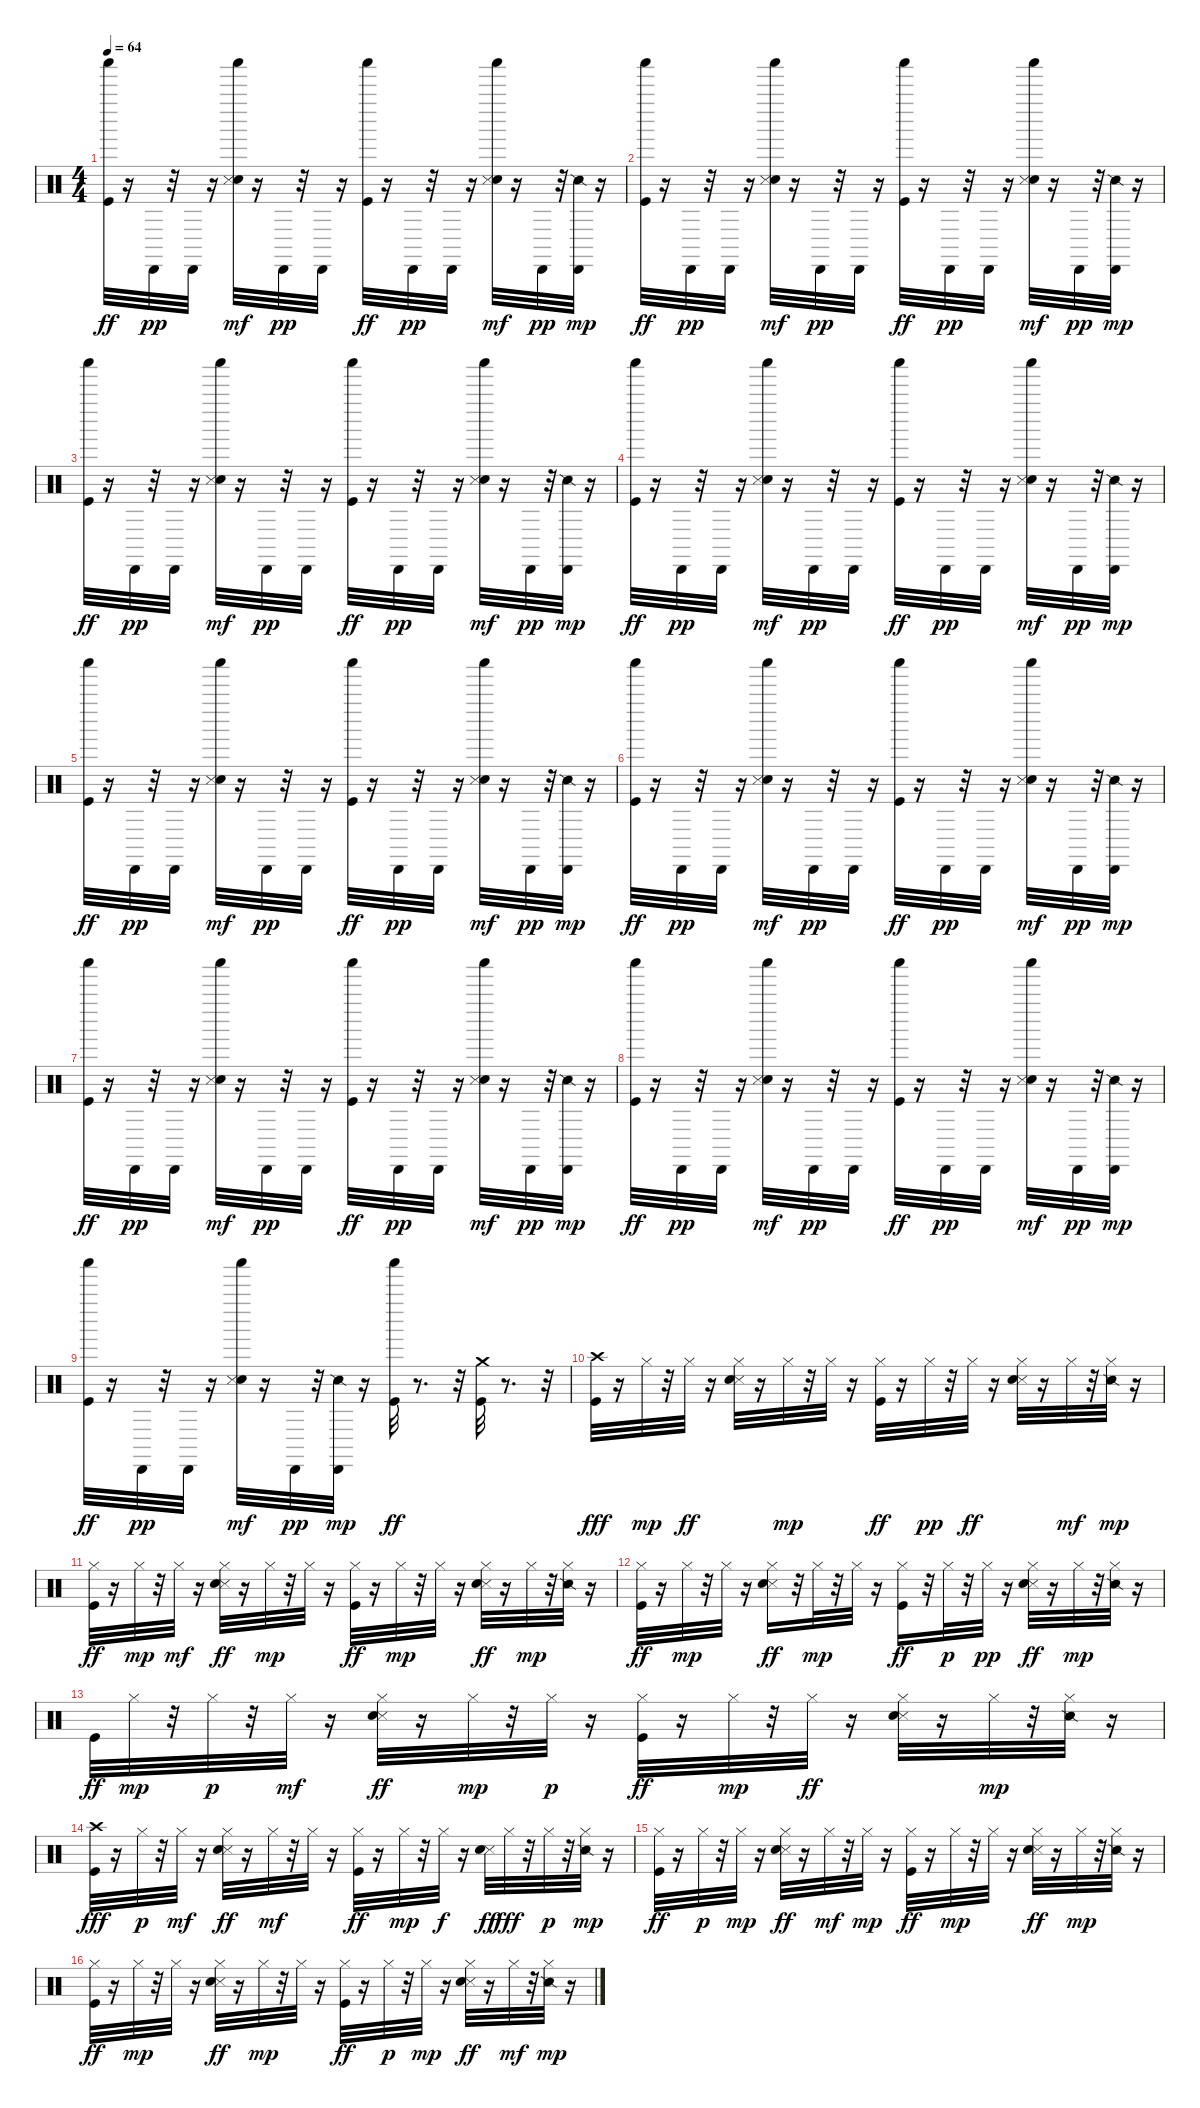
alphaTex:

\track "" {instrument percussion}
\staff {score}
\articulation defaults
\ts (4 4)
\tempo 64
\clef neutral
\ks c
("Shaker (hit)" "Kick (hit)").32{dy ff} r.16 "Cabasa (hit)".32{dy pp} r.32 "Cabasa (hit)".32 r.16 ("Shaker (hit)" "Snare (hit) 2" "Snare (side stick) 3").32{dy mf} r.16 "Cabasa (hit)".32{dy pp} r.32 "Cabasa (hit)".32 r.16 ("Shaker (hit)" "Kick (hit)").32{dy ff} r.16 "Cabasa (hit)".32{dy pp} r.32 "Cabasa (hit)".32 r.16 ("Shaker (hit)" "Snare (hit) 2" "Snare (side stick) 3").32{dy mf} r.16 "Cabasa (hit)".32{dy pp} r.32 ("Cabasa (hit)" "Snare (side stick) 2").32{dy mp} r.16 |
("Shaker (hit)" "Kick (hit)").32{dy ff} r.16 "Cabasa (hit)".32{dy pp} r.32 "Cabasa (hit)".32 r.16 ("Shaker (hit)" "Snare (hit) 2" "Snare (side stick) 3").32{dy mf} r.16 "Cabasa (hit)".32{dy pp} r.32 "Cabasa (hit)".32 r.16 ("Shaker (hit)" "Kick (hit)").32{dy ff} r.16 "Cabasa (hit)".32{dy pp} r.32 "Cabasa (hit)".32 r.16 ("Shaker (hit)" "Snare (hit) 2" "Snare (side stick) 3").32{dy mf} r.16 "Cabasa (hit)".32{dy pp} r.32 ("Cabasa (hit)" "Snare (side stick) 2").32{dy mp} r.16 |
("Shaker (hit)" "Kick (hit)").32{dy ff} r.16 "Cabasa (hit)".32{dy pp} r.32 "Cabasa (hit)".32 r.16 ("Shaker (hit)" "Snare (hit) 2" "Snare (side stick) 3").32{dy mf} r.16 "Cabasa (hit)".32{dy pp} r.32 "Cabasa (hit)".32 r.16 ("Shaker (hit)" "Kick (hit)").32{dy ff} r.16 "Cabasa (hit)".32{dy pp} r.32 "Cabasa (hit)".32 r.16 ("Shaker (hit)" "Snare (hit) 2" "Snare (side stick) 3").32{dy mf} r.16 "Cabasa (hit)".32{dy pp} r.32 ("Cabasa (hit)" "Snare (side stick) 2").32{dy mp} r.16 |
("Shaker (hit)" "Kick (hit)").32{dy ff} r.16 "Cabasa (hit)".32{dy pp} r.32 "Cabasa (hit)".32 r.16 ("Shaker (hit)" "Snare (hit) 2" "Snare (side stick) 3").32{dy mf} r.16 "Cabasa (hit)".32{dy pp} r.32 "Cabasa (hit)".32 r.16 ("Shaker (hit)" "Kick (hit)").32{dy ff} r.16 "Cabasa (hit)".32{dy pp} r.32 "Cabasa (hit)".32 r.16 ("Shaker (hit)" "Snare (hit) 2" "Snare (side stick) 3").32{dy mf} r.16 "Cabasa (hit)".32{dy pp} r.32 ("Cabasa (hit)" "Snare (side stick) 2").32{dy mp} r.16 |
("Shaker (hit)" "Kick (hit)").32{dy ff} r.16 "Cabasa (hit)".32{dy pp} r.32 "Cabasa (hit)".32 r.16 ("Shaker (hit)" "Snare (hit) 2" "Snare (side stick) 3").32{dy mf} r.16 "Cabasa (hit)".32{dy pp} r.32 "Cabasa (hit)".32 r.16 ("Shaker (hit)" "Kick (hit)").32{dy ff} r.16 "Cabasa (hit)".32{dy pp} r.32 "Cabasa (hit)".32 r.16 ("Shaker (hit)" "Snare (hit) 2" "Snare (side stick) 3").32{dy mf} r.16 "Cabasa (hit)".32{dy pp} r.32 ("Cabasa (hit)" "Snare (side stick) 2").32{dy mp} r.16 |
("Shaker (hit)" "Kick (hit)").32{dy ff} r.16 "Cabasa (hit)".32{dy pp} r.32 "Cabasa (hit)".32 r.16 ("Shaker (hit)" "Snare (hit) 2" "Snare (side stick) 3").32{dy mf} r.16 "Cabasa (hit)".32{dy pp} r.32 "Cabasa (hit)".32 r.16 ("Shaker (hit)" "Kick (hit)").32{dy ff} r.16 "Cabasa (hit)".32{dy pp} r.32 "Cabasa (hit)".32 r.16 ("Shaker (hit)" "Snare (hit) 2" "Snare (side stick) 3").32{dy mf} r.16 "Cabasa (hit)".32{dy pp} r.32 ("Cabasa (hit)" "Snare (side stick) 2").32{dy mp} r.16 |
("Shaker (hit)" "Kick (hit)").32{dy ff} r.16 "Cabasa (hit)".32{dy pp} r.32 "Cabasa (hit)".32 r.16 ("Shaker (hit)" "Snare (hit) 2" "Snare (side stick) 3").32{dy mf} r.16 "Cabasa (hit)".32{dy pp} r.32 "Cabasa (hit)".32 r.16 ("Shaker (hit)" "Kick (hit)").32{dy ff} r.16 "Cabasa (hit)".32{dy pp} r.32 "Cabasa (hit)".32 r.16 ("Shaker (hit)" "Snare (hit) 2" "Snare (side stick) 3").32{dy mf} r.16 "Cabasa (hit)".32{dy pp} r.32 ("Cabasa (hit)" "Snare (side stick) 2").32{dy mp} r.16 |
("Shaker (hit)" "Kick (hit)").32{dy ff} r.16 "Cabasa (hit)".32{dy pp} r.32 "Cabasa (hit)".32 r.16 ("Shaker (hit)" "Snare (hit) 2" "Snare (side stick) 3").32{dy mf} r.16 "Cabasa (hit)".32{dy pp} r.32 "Cabasa (hit)".32 r.16 ("Shaker (hit)" "Kick (hit)").32{dy ff} r.16 "Cabasa (hit)".32{dy pp} r.32 "Cabasa (hit)".32 r.16 ("Shaker (hit)" "Snare (hit) 2" "Snare (side stick) 3").32{dy mf} r.16 "Cabasa (hit)".32{dy pp} r.32 ("Cabasa (hit)" "Snare (side stick) 2").32{dy mp} r.16 |
("Shaker (hit)" "Kick (hit)").32{dy ff} r.16 "Cabasa (hit)".32{dy pp} r.32 "Cabasa (hit)".32 r.16 ("Shaker (hit)" "Snare (hit) 2" "Snare (side stick) 3").32{dy mf} r.16 "Cabasa (hit)".32{dy pp} r.32 ("Cabasa (hit)" "Snare (side stick) 2").32{dy mp} r.16 ("Shaker (hit)" "Kick (hit)").32{dy ff} r.8{d} r.32 ("Crash medium (hit)" "Kick (hit)").32 r.8{d} r.32 |
("Kick (hit)" "Crash high (hit)").32{dy fff} r.16 "Hi-Hat (closed)".32{dy mp} r.32 "Hi-Hat (closed)".32{dy ff} r.16 ("Hi-Hat (closed)" "Snare (side stick) 3" "Electric Snare (hit)").32 r.16 "Hi-Hat (closed)".32{dy mp} r.32 "Hi-Hat (closed)".32 r.16 ("Hi-Hat (closed)" "Kick (hit)").32{dy ff} r.16 "Hi-Hat (closed)".32{dy pp} r.32 "Hi-Hat (closed)".32{dy ff} r.16 ("Hi-Hat (closed)" "Snare (side stick) 3" "Electric Snare (hit)").32 r.16 "Hi-Hat (closed)".32{dy mf} r.32 ("Hi-Hat (closed)" "Snare (side stick) 2").32{dy mp} r.16 |
("Hi-Hat (closed)" "Kick (hit)").32{dy ff} r.16 "Hi-Hat (closed)".32{dy mp} r.32 "Hi-Hat (closed)".32{dy mf} r.16 ("Hi-Hat (closed)" "Snare (side stick) 3" "Electric Snare (hit)").32{dy ff} r.16 "Hi-Hat (closed)".32{dy mp} r.32 "Hi-Hat (closed)".32 r.16 ("Hi-Hat (closed)" "Kick (hit)").32{dy ff} r.16 "Hi-Hat (closed)".32{dy mp} r.32 "Hi-Hat (closed)".32 r.16 ("Hi-Hat (closed)" "Snare (side stick) 3" "Electric Snare (hit)").32{dy ff} r.16 "Hi-Hat (closed)".32{dy mp} r.32 ("Hi-Hat (closed)" "Snare (side stick) 2").32 r.16 |
("Hi-Hat (closed)" "Kick (hit)").32{dy ff} r.16 "Hi-Hat (closed)".32{dy mp} r.32 "Hi-Hat (closed)".32 r.16 ("Hi-Hat (closed)" "Snare (side stick) 3" "Electric Snare (hit)").16{dy ff} r.32 "Hi-Hat (closed)".32{dy mp} r.32 "Hi-Hat (closed)".32 r.16 ("Hi-Hat (closed)" "Kick (hit)").16{dy ff} r.32 "Hi-Hat (closed)".32{dy p} r.32 "Hi-Hat (closed)".32{dy pp} r.16 ("Hi-Hat (closed)" "Snare (side stick) 3" "Electric Snare (hit)").32{dy ff} r.16 "Hi-Hat (closed)".32{dy mp} r.32 ("Hi-Hat (closed)" "Snare (side stick) 2").32 r.16 |
"Kick (hit)".32{dy ff} "Hi-Hat (closed)".32{dy mp} r.32 "Hi-Hat (closed)".32{dy p} r.32 "Hi-Hat (closed)".32{dy mf} r.16 ("Hi-Hat (closed)" "Snare (side stick) 3" "Electric Snare (hit)").32{dy ff} r.16 "Hi-Hat (closed)".32{dy mp} r.32 "Hi-Hat (closed)".32{dy p} r.16 ("Hi-Hat (closed)" "Kick (hit)").32{dy ff} r.16 "Hi-Hat (closed)".32{dy mp} r.32 "Hi-Hat (closed)".32{dy ff} r.16 ("Hi-Hat (closed)" "Snare (side stick) 3" "Electric Snare (hit)").32 r.16 "Hi-Hat (closed)".32{dy mp} r.32 ("Hi-Hat (closed)" "Snare (side stick) 2").32 r.16 |
("Kick (hit)" "Crash high (hit)").32{dy fff} r.16 "Hi-Hat (closed)".32{dy p} r.32 "Hi-Hat (closed)".32{dy mf} r.16 ("Hi-Hat (closed)" "Snare (side stick) 3" "Electric Snare (hit)").32{dy ff} r.16 "Hi-Hat (closed)".32{dy mf} r.32 "Hi-Hat (closed)".32 r.16 ("Hi-Hat (closed)" "Kick (hit)").32{dy ff} r.16 "Hi-Hat (closed)".32{dy mp} r.32 "Hi-Hat (closed)".32{dy f} r.16 ("Snare (side stick) 3" "Electric Snare (hit)").32{dy ff} "Hi-Hat (closed)".32{dy fff} r.32 "Hi-Hat (closed)".32{dy p} r.32 ("Hi-Hat (closed)" "Snare (side stick) 2").32{dy mp} r.16 |
("Hi-Hat (closed)" "Kick (hit)").32{dy ff} r.16 "Hi-Hat (closed)".32{dy p} r.32 "Hi-Hat (closed)".32{dy mp} r.16 ("Hi-Hat (closed)" "Snare (side stick) 3" "Electric Snare (hit)").32{dy ff} r.16 "Hi-Hat (closed)".32{dy mf} r.32 "Hi-Hat (closed)".32{dy mp} r.16 ("Hi-Hat (closed)" "Kick (hit)").32{dy ff} r.16 "Hi-Hat (closed)".32{dy mp} r.32 "Hi-Hat (closed)".32 r.16 ("Hi-Hat (closed)" "Snare (side stick) 3" "Electric Snare (hit)").32{dy ff} r.16 "Hi-Hat (closed)".32{dy mp} r.32 ("Hi-Hat (closed)" "Snare (side stick) 2").32 r.16 |
("Hi-Hat (closed)" "Kick (hit)").32{dy ff} r.16 "Hi-Hat (closed)".32{dy mp} r.32 "Hi-Hat (closed)".32 r.16 ("Hi-Hat (closed)" "Snare (side stick) 3" "Electric Snare (hit)").32{dy ff} r.16 "Hi-Hat (closed)".32{dy mp} r.32 "Hi-Hat (closed)".32 r.16 ("Hi-Hat (closed)" "Kick (hit)").32{dy ff} r.16 "Hi-Hat (closed)".32{dy p} r.32 "Hi-Hat (closed)".32{dy mp} r.16 ("Hi-Hat (closed)" "Snare (side stick) 3" "Electric Snare (hit)").32{dy ff} r.16 "Hi-Hat (closed)".32{dy mf} r.32 ("Hi-Hat (closed)" "Snare (side stick) 2").32{dy mp} r.16
